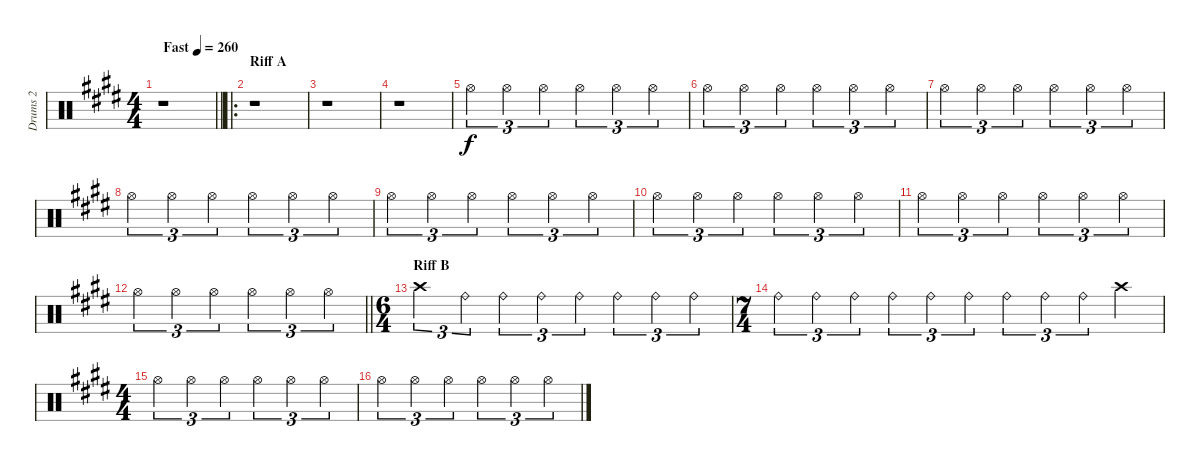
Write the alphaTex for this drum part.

\track ("Drums 2" "Drums 2") {instrument percussion}
\staff {score}
\articulation defaults
\ts (4 4)
\tempo (260 "Fast")
\clef neutral
\barLineRight lightlight
\ks c#minor
r.1{dy f} |
\ro
\section ("" "Riff A")
r.1 |
r.1 |
r.1 |
"Hi-Hat (open)".4{tu (3 2)} "Hi-Hat (open)".4{tu (3 2)} "Hi-Hat (open)".4{tu (3 2)} "Hi-Hat (open)".4{tu (3 2)} "Hi-Hat (open)".4{tu (3 2)} "Hi-Hat (open)".4{tu (3 2)} |
"Hi-Hat (open)".4{tu (3 2)} "Hi-Hat (open)".4{tu (3 2)} "Hi-Hat (open)".4{tu (3 2)} "Hi-Hat (open)".4{tu (3 2)} "Hi-Hat (open)".4{tu (3 2)} "Hi-Hat (open)".4{tu (3 2)} |
"Hi-Hat (open)".4{tu (3 2)} "Hi-Hat (open)".4{tu (3 2)} "Hi-Hat (open)".4{tu (3 2)} "Hi-Hat (open)".4{tu (3 2)} "Hi-Hat (open)".4{tu (3 2)} "Hi-Hat (open)".4{tu (3 2)} |
"Hi-Hat (open)".4{tu (3 2)} "Hi-Hat (open)".4{tu (3 2)} "Hi-Hat (open)".4{tu (3 2)} "Hi-Hat (open)".4{tu (3 2)} "Hi-Hat (open)".4{tu (3 2)} "Hi-Hat (open)".4{tu (3 2)} |
"Hi-Hat (open)".4{tu (3 2)} "Hi-Hat (open)".4{tu (3 2)} "Hi-Hat (open)".4{tu (3 2)} "Hi-Hat (open)".4{tu (3 2)} "Hi-Hat (open)".4{tu (3 2)} "Hi-Hat (open)".4{tu (3 2)} |
"Hi-Hat (open)".4{tu (3 2)} "Hi-Hat (open)".4{tu (3 2)} "Hi-Hat (open)".4{tu (3 2)} "Hi-Hat (open)".4{tu (3 2)} "Hi-Hat (open)".4{tu (3 2)} "Hi-Hat (open)".4{tu (3 2)} |
"Hi-Hat (open)".4{tu (3 2)} "Hi-Hat (open)".4{tu (3 2)} "Hi-Hat (open)".4{tu (3 2)} "Hi-Hat (open)".4{tu (3 2)} "Hi-Hat (open)".4{tu (3 2)} "Hi-Hat (open)".4{tu (3 2)} |
\barLineRight lightlight "Hi-Hat (open)".4{tu (3 2)} "Hi-Hat (open)".4{tu (3 2)} "Hi-Hat (open)".4{tu (3 2)} "Hi-Hat (open)".4{tu (3 2)} "Hi-Hat (open)".4{tu (3 2)} "Hi-Hat (open)".4{tu (3 2)}
|
\ts (6 4)
\section ("" "Riff B")
"Crash high (hit)".2{tu (3 2)} "Ride (bell)".4{tu (3 2)} "Ride (bell)".4{tu (3 2)} "Ride (bell)".4{tu (3 2)} "Ride (bell)".4{tu (3 2)} "Ride (bell)".4{tu (3 2)} "Ride (bell)".4{tu (3 2)} "Ride (bell)".4{tu (3 2)} |
\ts (7 4)
"Ride (bell)".4{tu (3 2)} "Ride (bell)".4{tu (3 2)} "Ride (bell)".4{tu (3 2)} "Ride (bell)".4{tu (3 2)} "Ride (bell)".4{tu (3 2)} "Ride (bell)".4{tu (3 2)} "Ride (bell)".4{tu (3 2)} "Ride (bell)".4{tu (3 2)} "Ride (bell)".4{tu (3 2)} "Crash high (hit)".4 |
\ts (4 4)
"Hi-Hat (open)".4{tu (3 2)} "Hi-Hat (open)".4{tu (3 2)} "Hi-Hat (open)".4{tu (3 2)} "Hi-Hat (open)".4{tu (3 2)} "Hi-Hat (open)".4{tu (3 2)} "Hi-Hat (open)".4{tu (3 2)} |
"Hi-Hat (open)".4{tu (3 2)} "Hi-Hat (open)".4{tu (3 2)} "Hi-Hat (open)".4{tu (3 2)} "Hi-Hat (open)".4{tu (3 2)} "Hi-Hat (open)".4{tu (3 2)} "Hi-Hat (open)".4{tu (3 2)}
